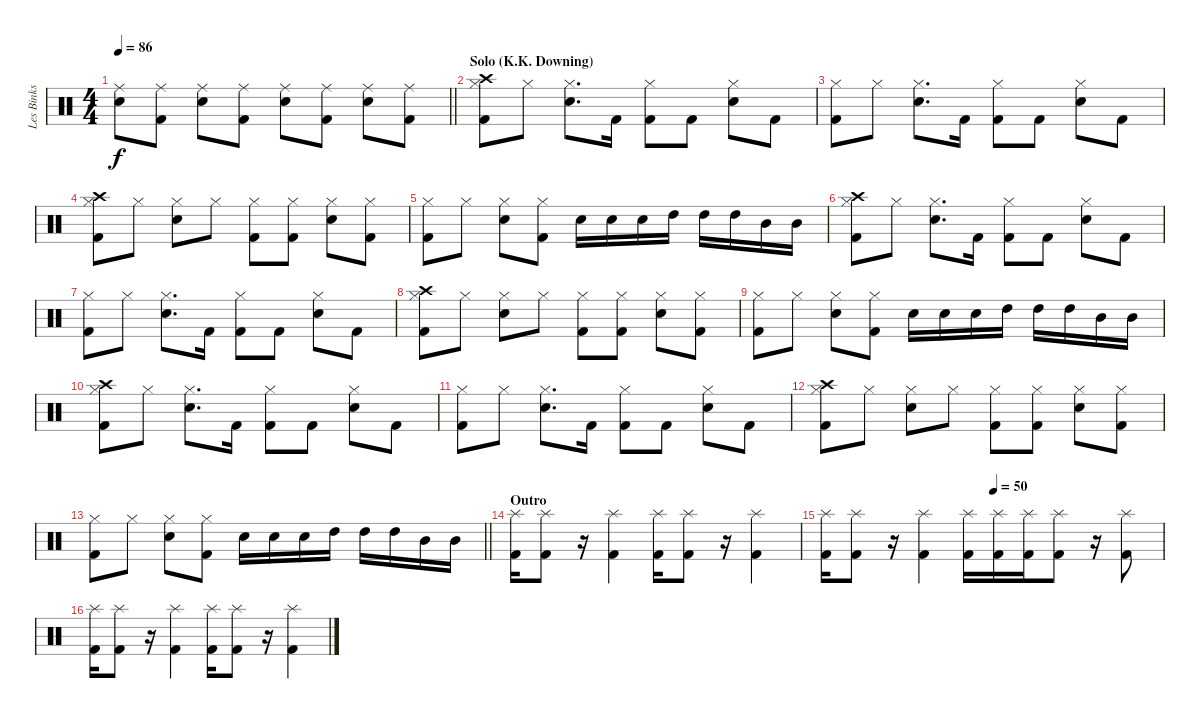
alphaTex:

\track ("Les Binks" "Les Binks") {instrument percussion}
\staff {score}
\articulation defaults
\ts (4 4)
\tempo 86
\clef neutral
\barLineRight lightlight
\ks c
("Ride (middle)" "Snare (hit) 2").8{dy f} ("Ride (middle)" "Kick (hit) 2").8 ("Ride (middle)" "Snare (hit) 2").8 ("Ride (middle)" "Kick (hit) 2").8 ("Ride (middle)" "Snare (hit) 2").8 ("Ride (middle)" "Kick (hit) 2").8 ("Ride (middle)" "Snare (hit) 2").8 ("Ride (middle)" "Kick (hit) 2").8 |
\section ("" "Solo (K.K. Downing)")
("Crash high (hit)" "Hi-Hat (closed)" "Kick (hit) 2").8 "Hi-Hat (closed)".8 ("Hi-Hat (closed)" "Snare (hit) 2").8{d} "Kick (hit) 2".16 ("Hi-Hat (closed)" "Kick (hit) 2").8 "Kick (hit) 2".8 ("Hi-Hat (closed)" "Snare (hit) 2").8 "Kick (hit) 2".8 |
("Hi-Hat (closed)" "Kick (hit) 2").8 "Hi-Hat (closed)".8 ("Hi-Hat (closed)" "Snare (hit) 2").8{d} "Kick (hit) 2".16 ("Hi-Hat (closed)" "Kick (hit) 2").8 "Kick (hit) 2".8 ("Hi-Hat (closed)" "Snare (hit) 2").8 "Kick (hit) 2".8 |
("Crash high (hit)" "Hi-Hat (closed)" "Kick (hit) 2").8 "Hi-Hat (closed)".8 ("Hi-Hat (closed)" "Snare (hit) 2").8 "Hi-Hat (closed)".8 ("Hi-Hat (closed)" "Kick (hit) 2").8 ("Hi-Hat (closed)" "Kick (hit) 2").8 ("Hi-Hat (closed)" "Snare (hit) 2").8 ("Hi-Hat (closed)" "Kick (hit) 2").8 |
("Hi-Hat (closed)" "Kick (hit) 2").8 "Hi-Hat (closed)".8 ("Hi-Hat (closed)" "Snare (hit) 2").8 ("Hi-Hat (closed)" "Kick (hit) 2").8 "Snare (hit) 2".16 "Snare (hit) 2".16 "Snare (hit) 2".16 "High Tom (hit)".16 "High Tom (hit)".16 "High Tom (hit)".16 "Mid Tom (hit)".16 "Mid Tom (hit)".16 |
("Crash high (hit)" "Hi-Hat (closed)" "Kick (hit) 2").8 "Hi-Hat (closed)".8 ("Hi-Hat (closed)" "Snare (hit) 2").8{d} "Kick (hit) 2".16 ("Hi-Hat (closed)" "Kick (hit) 2").8 "Kick (hit) 2".8 ("Hi-Hat (closed)" "Snare (hit) 2").8 "Kick (hit) 2".8 |
("Hi-Hat (closed)" "Kick (hit) 2").8 "Hi-Hat (closed)".8 ("Hi-Hat (closed)" "Snare (hit) 2").8{d} "Kick (hit) 2".16 ("Hi-Hat (closed)" "Kick (hit) 2").8 "Kick (hit) 2".8 ("Hi-Hat (closed)" "Snare (hit) 2").8 "Kick (hit) 2".8 |
("Crash high (hit)" "Hi-Hat (closed)" "Kick (hit) 2").8 "Hi-Hat (closed)".8 ("Hi-Hat (closed)" "Snare (hit) 2").8 "Hi-Hat (closed)".8 ("Hi-Hat (closed)" "Kick (hit) 2").8 ("Hi-Hat (closed)" "Kick (hit) 2").8 ("Hi-Hat (closed)" "Snare (hit) 2").8 ("Hi-Hat (closed)" "Kick (hit) 2").8 |
("Hi-Hat (closed)" "Kick (hit) 2").8 "Hi-Hat (closed)".8 ("Hi-Hat (closed)" "Snare (hit) 2").8 ("Hi-Hat (closed)" "Kick (hit) 2").8 "Snare (hit) 2".16 "Snare (hit) 2".16 "Snare (hit) 2".16 "High Tom (hit)".16 "High Tom (hit)".16 "High Tom (hit)".16 "Mid Tom (hit)".16 "Mid Tom (hit)".16 |
("Crash high (hit)" "Hi-Hat (closed)" "Kick (hit) 2").8 "Hi-Hat (closed)".8 ("Hi-Hat (closed)" "Snare (hit) 2").8{d} "Kick (hit) 2".16 ("Hi-Hat (closed)" "Kick (hit) 2").8 "Kick (hit) 2".8 ("Hi-Hat (closed)" "Snare (hit) 2").8 "Kick (hit) 2".8 |
("Hi-Hat (closed)" "Kick (hit) 2").8 "Hi-Hat (closed)".8 ("Hi-Hat (closed)" "Snare (hit) 2").8{d} "Kick (hit) 2".16 ("Hi-Hat (closed)" "Kick (hit) 2").8 "Kick (hit) 2".8 ("Hi-Hat (closed)" "Snare (hit) 2").8 "Kick (hit) 2".8 |
("Crash high (hit)" "Hi-Hat (closed)" "Kick (hit) 2").8 "Hi-Hat (closed)".8 ("Hi-Hat (closed)" "Snare (hit) 2").8 "Hi-Hat (closed)".8 ("Hi-Hat (closed)" "Kick (hit) 2").8 ("Hi-Hat (closed)" "Kick (hit) 2").8 ("Hi-Hat (closed)" "Snare (hit) 2").8 ("Hi-Hat (closed)" "Kick (hit) 2").8 |
\barLineRight lightlight
("Hi-Hat (closed)" "Kick (hit) 2").8 "Hi-Hat (closed)".8 ("Hi-Hat (closed)" "Snare (hit) 2").8 ("Hi-Hat (closed)" "Kick (hit) 2").8 "Snare (hit) 2".16 "Snare (hit) 2".16 "Snare (hit) 2".16 "High Tom (hit)".16 "High Tom (hit)".16 "High Tom (hit)".16 "Mid Tom (hit)".16 "Mid Tom (hit)".16 |
\section ("" "Outro")
("Splash (hit)" "Kick (hit) 2").16 ("Splash (hit)" "Kick (hit) 2").8 r.16 ("Splash (hit)" "Kick (hit) 2").4 ("Splash (hit)" "Kick (hit) 2").16 ("Splash (hit)" "Kick (hit) 2").8 r.16 ("Splash (hit)" "Kick (hit) 2").4 |
\tempo (50 0.5)
("Splash (hit)" "Kick (hit) 2").16 ("Splash (hit)" "Kick (hit) 2").8 r.16 ("Splash (hit)" "Kick (hit) 2").4 ("Splash (hit)" "Kick (hit) 2").16 ("Splash (hit)" "Kick (hit) 2").16 ("Splash (hit)" "Kick (hit) 2").16 ("Splash (hit)" "Kick (hit) 2").8 r.16 ("Splash (hit)" "Kick (hit) 2").8 |
("Splash (hit)" "Kick (hit) 2").16 ("Splash (hit)" "Kick (hit) 2").8 r.16 ("Splash (hit)" "Kick (hit) 2").4 ("Splash (hit)" "Kick (hit) 2").16 ("Splash (hit)" "Kick (hit) 2").8 r.16 ("Splash (hit)" "Kick (hit) 2").4
